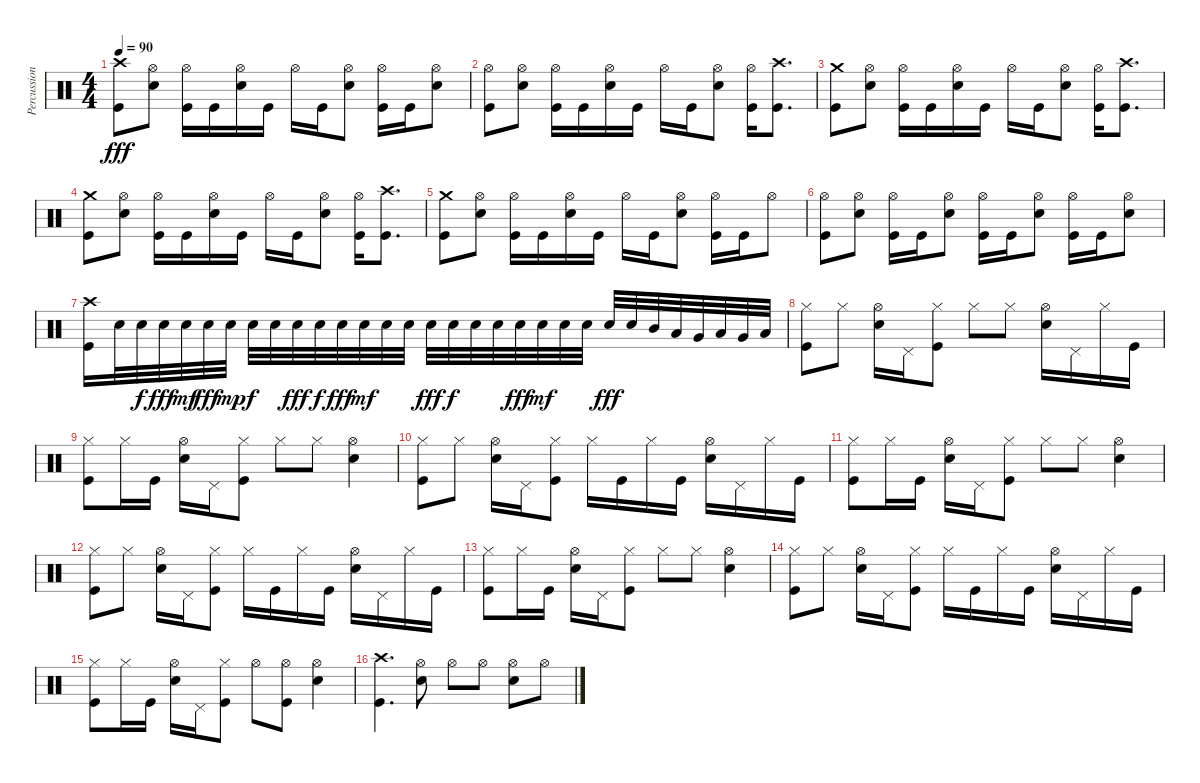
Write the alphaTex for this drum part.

\track ("Percussion" "Percussion") {instrument percussion}
\staff {score}
\articulation defaults
\ts (4 4)
\tempo 90
\clef neutral
\ks c
("Crash high (hit)" "Kick (hit)").8{dy fff} ("Hi-Hat (open)" "Electric Snare (hit)").8 ("Hi-Hat (open)" "Kick (hit)").16 "Kick (hit)".16 ("Hi-Hat (open)" "Electric Snare (hit)").16 "Kick (hit)".16 "Hi-Hat (open)".16 "Kick (hit)".16 ("Hi-Hat (open)" "Electric Snare (hit)").8 ("Hi-Hat (open)" "Kick (hit)").16 "Kick (hit)".16 ("Hi-Hat (open)" "Electric Snare (hit)").8 |
("Hi-Hat (open)" "Kick (hit)").8 ("Hi-Hat (open)" "Electric Snare (hit)").8 ("Hi-Hat (open)" "Kick (hit)").16 "Kick (hit)".16 ("Hi-Hat (open)" "Electric Snare (hit)").16 "Kick (hit)".16 "Hi-Hat (open)".16 "Kick (hit)".16 ("Hi-Hat (open)" "Electric Snare (hit)").8 ("Hi-Hat (open)" "Kick (hit)").16 ("Crash high (hit)" "Kick (hit)").8{d} |
("Crash medium (hit)" "Kick (hit)").8 ("Hi-Hat (open)" "Electric Snare (hit)").8 ("Hi-Hat (open)" "Kick (hit)").16 "Kick (hit)".16 ("Hi-Hat (open)" "Electric Snare (hit)").16 "Kick (hit)".16 "Hi-Hat (open)".16 "Kick (hit)".16 ("Hi-Hat (open)" "Electric Snare (hit)").8 ("Hi-Hat (open)" "Kick (hit)").16 ("Crash high (hit)" "Kick (hit)").8{d} |
("Crash medium (hit)" "Kick (hit)").8 ("Hi-Hat (open)" "Electric Snare (hit)").8 ("Hi-Hat (open)" "Kick (hit)").16 "Kick (hit)".16 ("Hi-Hat (open)" "Electric Snare (hit)").16 "Kick (hit)".16 "Hi-Hat (open)".16 "Kick (hit)".16 ("Hi-Hat (open)" "Electric Snare (hit)").8 ("Hi-Hat (open)" "Kick (hit)").16 ("Crash high (hit)" "Kick (hit)").8{d} |
("Crash medium (hit)" "Kick (hit)").8 ("Hi-Hat (open)" "Electric Snare (hit)").8 ("Hi-Hat (open)" "Kick (hit)").16 "Kick (hit)".16 ("Hi-Hat (open)" "Electric Snare (hit)").16 "Kick (hit)".16 "Hi-Hat (open)".16 "Kick (hit)".16 ("Hi-Hat (open)" "Electric Snare (hit)").8 ("Hi-Hat (open)" "Kick (hit)").16 "Kick (hit)".16 "Hi-Hat (open)".8 |
("Hi-Hat (open)" "Kick (hit)").8 ("Hi-Hat (open)" "Electric Snare (hit)").8 ("Hi-Hat (open)" "Kick (hit)").16 "Kick (hit)".16 ("Hi-Hat (open)" "Electric Snare (hit)").8 ("Hi-Hat (open)" "Kick (hit)").16 "Kick (hit)".16 ("Hi-Hat (open)" "Electric Snare (hit)").8 ("Hi-Hat (open)" "Kick (hit)").16 "Kick (hit)".16 ("Hi-Hat (open)" "Electric Snare (hit)").8 |
("Crash high (hit)" "Kick (hit)").16 "Electric Snare (hit)".32 "Electric Snare (hit)".32{dy f} "Electric Snare (hit)".32{dy fff} "Electric Snare (hit)".32{dy mf} "Electric Snare (hit)".32{dy fff} "Electric Snare (hit)".32{dy mp} "Electric Snare (hit)".32{dy f} "Electric Snare (hit)".32 "Electric Snare (hit)".32{dy fff} "Electric Snare (hit)".32{dy f} "Electric Snare (hit)".32{dy fff} "Electric Snare (hit)".32{dy mf} "Electric Snare (hit)".32 "Electric Snare (hit)".32 "Electric Snare (hit)".32{dy fff} "Electric Snare (hit)".32{dy f} "Electric Snare (hit)".32 "Electric Snare (hit)".32 "Electric Snare (hit)".32{dy fff} "Electric Snare (hit)".32{dy mf} "Electric Snare (hit)".32 "Electric Snare (hit)".32 "Electric Snare (hit)".32{dy fff} "Electric Snare (hit)".32 "Mid Tom (hit)".32 "Low Tom (hit)".32 "Very Low Tom (hit)".32 "Low Tom (hit)".32 "Very Low Tom (hit)".32 "Low Floor Tom (hit)".32 |
("Hi-Hat (closed)" "Kick (hit)").8 "Hi-Hat (closed)".8 ("Hi-Hat (open)" "Electric Snare (hit)").16 "Pedal Hi-Hat (hit)".16 ("Hi-Hat (closed)" "Kick (hit)").8 "Hi-Hat (closed)".8 "Hi-Hat (closed)".8 ("Hi-Hat (open)" "Electric Snare (hit)").16 "Pedal Hi-Hat (hit)".16 "Hi-Hat (closed)".16 "Kick (hit)".16 |
("Hi-Hat (closed)" "Kick (hit)").8 "Hi-Hat (closed)".16 "Kick (hit)".16 ("Hi-Hat (open)" "Electric Snare (hit)").16 "Pedal Hi-Hat (hit)".16 ("Hi-Hat (closed)" "Kick (hit)").8 "Hi-Hat (closed)".8 "Hi-Hat (closed)".8 ("Hi-Hat (open)" "Electric Snare (hit)").4 |
("Hi-Hat (closed)" "Kick (hit)").8 "Hi-Hat (closed)".8 ("Hi-Hat (open)" "Electric Snare (hit)").16 "Pedal Hi-Hat (hit)".16 ("Hi-Hat (closed)" "Kick (hit)").8 "Hi-Hat (closed)".16 "Kick (hit)".16 "Hi-Hat (closed)".16 "Kick (hit)".16 ("Hi-Hat (open)" "Electric Snare (hit)").16 "Pedal Hi-Hat (hit)".16 "Hi-Hat (closed)".16 "Kick (hit)".16 |
("Hi-Hat (closed)" "Kick (hit)").8 "Hi-Hat (closed)".16 "Kick (hit)".16 ("Hi-Hat (open)" "Electric Snare (hit)").16 "Pedal Hi-Hat (hit)".16 ("Hi-Hat (closed)" "Kick (hit)").8 "Hi-Hat (closed)".8 "Hi-Hat (closed)".8 ("Hi-Hat (open)" "Electric Snare (hit)").4 |
("Hi-Hat (closed)" "Kick (hit)").8 "Hi-Hat (closed)".8 ("Hi-Hat (open)" "Electric Snare (hit)").16 "Pedal Hi-Hat (hit)".16 ("Hi-Hat (closed)" "Kick (hit)").8 "Hi-Hat (closed)".16 "Kick (hit)".16 "Hi-Hat (closed)".16 "Kick (hit)".16 ("Hi-Hat (open)" "Electric Snare (hit)").16 "Pedal Hi-Hat (hit)".16 "Hi-Hat (closed)".16 "Kick (hit)".16 |
("Hi-Hat (closed)" "Kick (hit)").8 "Hi-Hat (closed)".16 "Kick (hit)".16 ("Hi-Hat (open)" "Electric Snare (hit)").16 "Pedal Hi-Hat (hit)".16 ("Hi-Hat (closed)" "Kick (hit)").8 "Hi-Hat (closed)".8 "Hi-Hat (closed)".8 ("Hi-Hat (open)" "Electric Snare (hit)").4 |
("Hi-Hat (closed)" "Kick (hit)").8 "Hi-Hat (closed)".8 ("Hi-Hat (open)" "Electric Snare (hit)").16 "Pedal Hi-Hat (hit)".16 ("Hi-Hat (closed)" "Kick (hit)").8 "Hi-Hat (closed)".16 "Kick (hit)".16 "Hi-Hat (closed)".16 "Kick (hit)".16 ("Hi-Hat (open)" "Electric Snare (hit)").16 "Pedal Hi-Hat (hit)".16 "Hi-Hat (closed)".16 "Kick (hit)".16 |
("Hi-Hat (closed)" "Kick (hit)").8 "Hi-Hat (closed)".16 "Kick (hit)".16 ("Hi-Hat (open)" "Electric Snare (hit)").16 "Pedal Hi-Hat (hit)".16 ("Hi-Hat (closed)" "Kick (hit)").8 "Hi-Hat (open)".8 ("Hi-Hat (open)" "Kick (hit)").8 ("Hi-Hat (open)" "Electric Snare (hit)").4 |
("Crash high (hit)" "Kick (hit)").4{d} ("Hi-Hat (open)" "Electric Snare (hit)").8 "Hi-Hat (open)".8 "Hi-Hat (open)".8 ("Hi-Hat (open)" "Electric Snare (hit)").8 "Hi-Hat (open)".8
